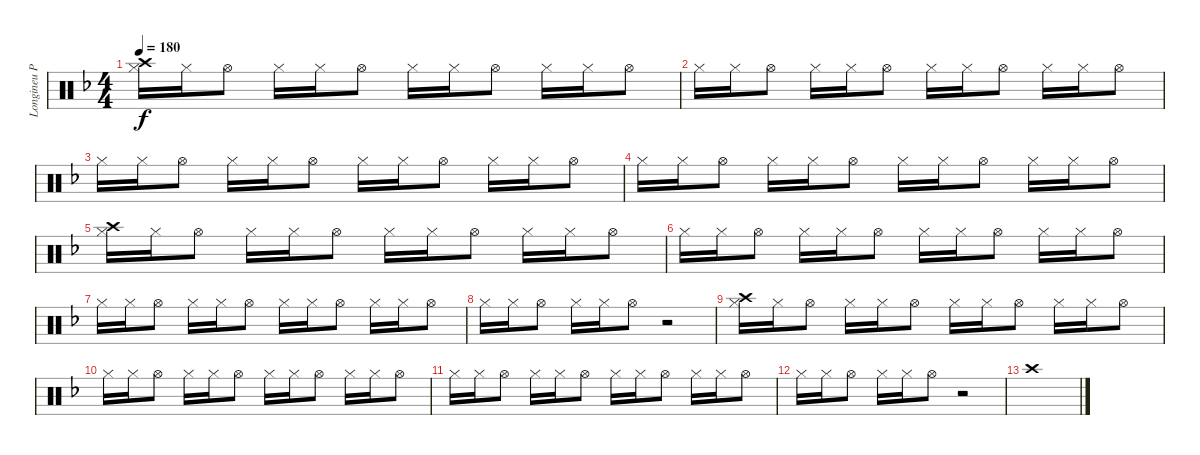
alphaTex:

\track ("Longineu Parsons III (Drums 1)" "Longineu P") {instrument percussion}
\staff {score}
\articulation defaults
\ts (4 4)
\tempo 180
\clef neutral
\ks f
("Crash high (hit)" "Hi-Hat (closed)").16{dy f} "Hi-Hat (closed)".16 "Hi-Hat (open)".8 "Hi-Hat (closed)".16 "Hi-Hat (closed)".16 "Hi-Hat (open)".8 "Hi-Hat (closed)".16 "Hi-Hat (closed)".16 "Hi-Hat (open)".8 "Hi-Hat (closed)".16 "Hi-Hat (closed)".16 "Hi-Hat (open)".8 |
"Hi-Hat (closed)".16 "Hi-Hat (closed)".16 "Hi-Hat (open)".8 "Hi-Hat (closed)".16 "Hi-Hat (closed)".16 "Hi-Hat (open)".8 "Hi-Hat (closed)".16 "Hi-Hat (closed)".16 "Hi-Hat (open)".8 "Hi-Hat (closed)".16 "Hi-Hat (closed)".16 "Hi-Hat (open)".8 |
"Hi-Hat (closed)".16 "Hi-Hat (closed)".16 "Hi-Hat (open)".8 "Hi-Hat (closed)".16 "Hi-Hat (closed)".16 "Hi-Hat (open)".8 "Hi-Hat (closed)".16 "Hi-Hat (closed)".16 "Hi-Hat (open)".8 "Hi-Hat (closed)".16 "Hi-Hat (closed)".16 "Hi-Hat (open)".8 |
"Hi-Hat (closed)".16 "Hi-Hat (closed)".16 "Hi-Hat (open)".8 "Hi-Hat (closed)".16 "Hi-Hat (closed)".16 "Hi-Hat (open)".8 "Hi-Hat (closed)".16 "Hi-Hat (closed)".16 "Hi-Hat (open)".8 "Hi-Hat (closed)".16 "Hi-Hat (closed)".16 "Hi-Hat (open)".8 |
("Crash high (hit)" "Hi-Hat (closed)").16 "Hi-Hat (closed)".16 "Hi-Hat (open)".8 "Hi-Hat (closed)".16 "Hi-Hat (closed)".16 "Hi-Hat (open)".8 "Hi-Hat (closed)".16 "Hi-Hat (closed)".16 "Hi-Hat (open)".8 "Hi-Hat (closed)".16 "Hi-Hat (closed)".16 "Hi-Hat (open)".8 |
"Hi-Hat (closed)".16 "Hi-Hat (closed)".16 "Hi-Hat (open)".8 "Hi-Hat (closed)".16 "Hi-Hat (closed)".16 "Hi-Hat (open)".8 "Hi-Hat (closed)".16 "Hi-Hat (closed)".16 "Hi-Hat (open)".8 "Hi-Hat (closed)".16 "Hi-Hat (closed)".16 "Hi-Hat (open)".8 |
"Hi-Hat (closed)".16 "Hi-Hat (closed)".16 "Hi-Hat (open)".8 "Hi-Hat (closed)".16 "Hi-Hat (closed)".16 "Hi-Hat (open)".8 "Hi-Hat (closed)".16 "Hi-Hat (closed)".16 "Hi-Hat (open)".8 "Hi-Hat (closed)".16 "Hi-Hat (closed)".16 "Hi-Hat (open)".8 |
"Hi-Hat (closed)".16 "Hi-Hat (closed)".16 "Hi-Hat (open)".8 "Hi-Hat (closed)".16 "Hi-Hat (closed)".16 "Hi-Hat (open)".8 r.2 |
("Crash high (hit)" "Hi-Hat (closed)").16 "Hi-Hat (closed)".16 "Hi-Hat (open)".8 "Hi-Hat (closed)".16 "Hi-Hat (closed)".16 "Hi-Hat (open)".8 "Hi-Hat (closed)".16 "Hi-Hat (closed)".16 "Hi-Hat (open)".8 "Hi-Hat (closed)".16 "Hi-Hat (closed)".16 "Hi-Hat (open)".8 |
"Hi-Hat (closed)".16 "Hi-Hat (closed)".16 "Hi-Hat (open)".8 "Hi-Hat (closed)".16 "Hi-Hat (closed)".16 "Hi-Hat (open)".8 "Hi-Hat (closed)".16 "Hi-Hat (closed)".16 "Hi-Hat (open)".8 "Hi-Hat (closed)".16 "Hi-Hat (closed)".16 "Hi-Hat (open)".8 |
"Hi-Hat (closed)".16 "Hi-Hat (closed)".16 "Hi-Hat (open)".8 "Hi-Hat (closed)".16 "Hi-Hat (closed)".16 "Hi-Hat (open)".8 "Hi-Hat (closed)".16 "Hi-Hat (closed)".16 "Hi-Hat (open)".8 "Hi-Hat (closed)".16 "Hi-Hat (closed)".16 "Hi-Hat (open)".8 |
"Hi-Hat (closed)".16 "Hi-Hat (closed)".16 "Hi-Hat (open)".8 "Hi-Hat (closed)".16 "Hi-Hat (closed)".16 "Hi-Hat (open)".8 r.2 |
"Crash high (hit)".1
